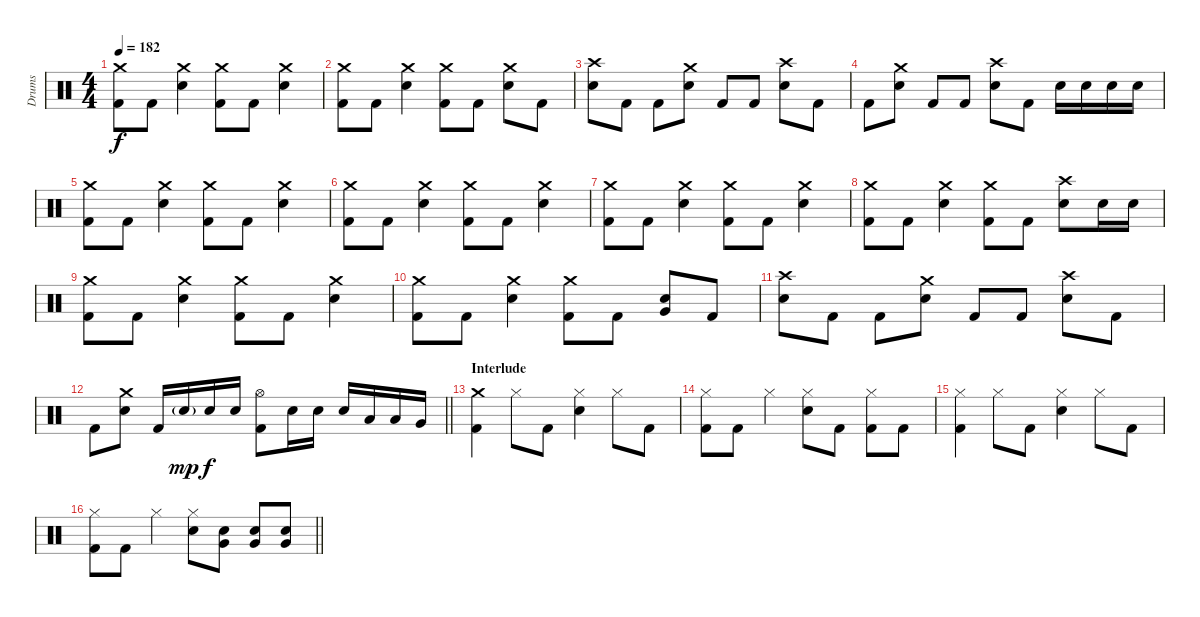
\track ("Drums" "Drums") {instrument percussion}
\staff {score}
\articulation defaults
\ts (4 4)
\tempo 182
\clef neutral
\ks c
("Crash medium (hit)" "Kick (hit) 2").8{dy f} "Kick (hit) 2".8 ("Crash medium (hit)" "Electric Snare (hit)").4 ("Crash medium (hit)" "Kick (hit) 2").8 "Kick (hit) 2".8 ("Crash medium (hit)" "Electric Snare (hit)").4 |
("Crash medium (hit)" "Kick (hit) 2").8 "Kick (hit) 2".8 ("Crash medium (hit)" "Electric Snare (hit)").4 ("Crash medium (hit)" "Kick (hit) 2").8 "Kick (hit) 2".8 ("Crash medium (hit)" "Electric Snare (hit)").8 "Kick (hit) 2".8 |
("Crash high (hit)" "Electric Snare (hit)").8 "Kick (hit) 2".8 "Kick (hit) 2".8 ("Crash medium (hit)" "Electric Snare (hit)").8 "Kick (hit) 2".8 "Kick (hit) 2".8 ("Crash high (hit)" "Electric Snare (hit)").8 "Kick (hit) 2".8 |
"Kick (hit) 2".8 ("Crash medium (hit)" "Electric Snare (hit)").8 "Kick (hit) 2".8 "Kick (hit) 2".8 ("Crash high (hit)" "Electric Snare (hit)").8 "Kick (hit) 2".8 "Electric Snare (hit)".16 "Electric Snare (hit)".16 "Electric Snare (hit)".16 "Electric Snare (hit)".16 |
("Crash medium (hit)" "Kick (hit) 2").8 "Kick (hit) 2".8 ("Crash medium (hit)" "Electric Snare (hit)").4 ("Crash medium (hit)" "Kick (hit) 2").8 "Kick (hit) 2".8 ("Crash medium (hit)" "Electric Snare (hit)").4 |
("Crash medium (hit)" "Kick (hit) 2").8 "Kick (hit) 2".8 ("Crash medium (hit)" "Electric Snare (hit)").4 ("Crash medium (hit)" "Kick (hit) 2").8 "Kick (hit) 2".8 ("Crash medium (hit)" "Electric Snare (hit)").4 |
("Crash medium (hit)" "Kick (hit) 2").8 "Kick (hit) 2".8 ("Crash medium (hit)" "Electric Snare (hit)").4 ("Crash medium (hit)" "Kick (hit) 2").8 "Kick (hit) 2".8 ("Crash medium (hit)" "Electric Snare (hit)").4 |
("Crash medium (hit)" "Kick (hit) 2").8 "Kick (hit) 2".8 ("Crash medium (hit)" "Electric Snare (hit)").4 ("Crash medium (hit)" "Kick (hit) 2").8 "Kick (hit) 2".8 ("Crash high (hit)" "Electric Snare (hit)").8 "Electric Snare (hit)".16 "Electric Snare (hit)".16 |
("Crash medium (hit)" "Kick (hit) 2").8 "Kick (hit) 2".8 ("Crash medium (hit)" "Electric Snare (hit)").4 ("Crash medium (hit)" "Kick (hit) 2").8 "Kick (hit) 2".8 ("Crash medium (hit)" "Electric Snare (hit)").4 |
("Crash medium (hit)" "Kick (hit) 2").8 "Kick (hit) 2".8 ("Crash medium (hit)" "Electric Snare (hit)").4 ("Crash medium (hit)" "Kick (hit) 2").8 "Kick (hit) 2".8 ("Very Low Tom (hit)" "Electric Snare (hit)").8 "Kick (hit) 2".8 |
("Crash high (hit)" "Electric Snare (hit)").8 "Kick (hit) 2".8 "Kick (hit) 2".8 ("Crash medium (hit)" "Electric Snare (hit)").8 "Kick (hit) 2".8 "Kick (hit) 2".8 ("Crash high (hit)" "Electric Snare (hit)").8 "Kick (hit) 2".8 |
\barLineRight lightlight "Kick (hit) 2".8
("Crash medium (hit)" "Electric Snare (hit)").8 "Kick (hit) 2".16 "Electric Snare (hit)"{g}.16{dy mp} "Electric Snare (hit)".16{dy f} "Electric Snare (hit)".16 ("Hi-Hat (open)" "Kick (hit) 2").8 "Electric Snare (hit)".16 "Electric Snare (hit)".16 "Electric Snare (hit)".16 "Low Tom (hit)".16 "Low Tom (hit)".16 "Very Low Tom (hit)".16 |
\section ("" "Interlude")
("Crash medium (hit)" "Kick (hit) 2").4{volume 8 balance 11} "Hi-Hat (closed)".8 "Kick (hit) 2".8 ("Hi-Hat (closed)" "Electric Snare (hit)").4 "Hi-Hat (closed)".8 "Kick (hit) 2".8 |
("Hi-Hat (closed)" "Kick (hit) 2").8 "Kick (hit) 2".8 "Hi-Hat (closed)".4 ("Hi-Hat (closed)" "Electric Snare (hit)").8 "Kick (hit) 2".8 ("Hi-Hat (closed)" "Kick (hit) 2").8 "Kick (hit) 2".8 |
("Hi-Hat (closed)" "Kick (hit) 2").4 "Hi-Hat (closed)".8 "Kick (hit) 2".8 ("Hi-Hat (closed)" "Electric Snare (hit)").4 "Hi-Hat (closed)".8 "Kick (hit) 2".8 |
\barLineRight lightlight
("Hi-Hat (closed)" "Kick (hit) 2").8 "Kick (hit) 2".8 "Hi-Hat (closed)".4 ("Hi-Hat (closed)" "Electric Snare (hit)").8 ("Very Low Tom (hit)" "Electric Snare (hit)").8{volume 12 balance 8} ("Very Low Tom (hit)" "Electric Snare (hit)").8 ("Very Low Tom (hit)" "Electric Snare (hit)").8
